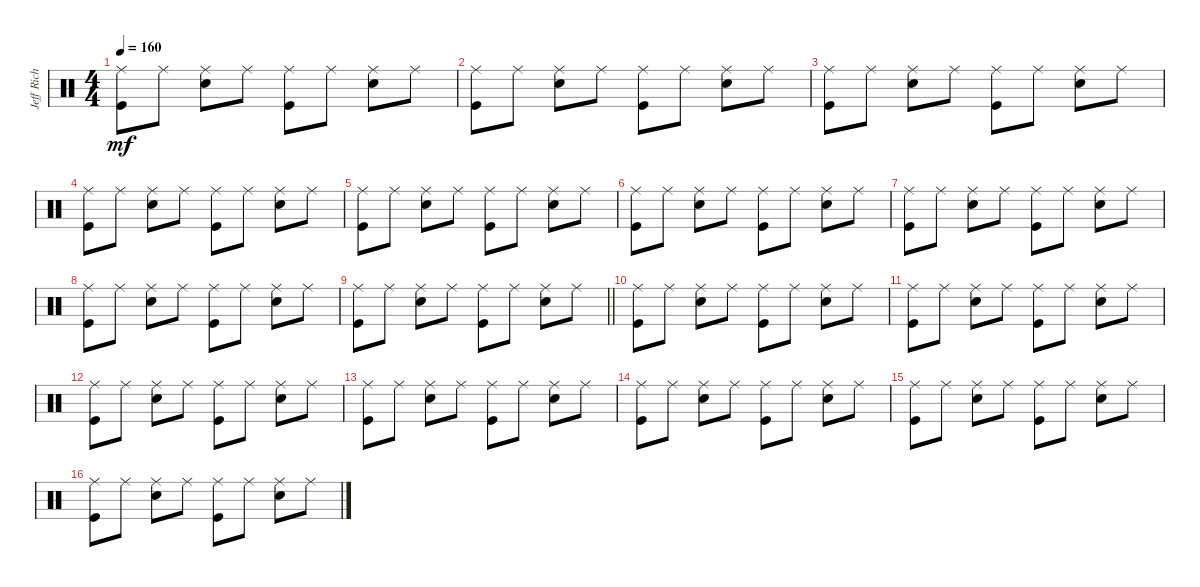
\track ("Jeff Rich (Percussion)" "Jeff Rich ") {instrument percussion}
\staff {score}
\articulation defaults
\ts (4 4)
\tempo 160
\clef neutral
\ks c
("Ride (middle)" "Kick (hit)").8{dy mf} "Ride (middle)".8 ("Ride (middle)" "Snare (hit) 2").8 "Ride (middle)".8 ("Ride (middle)" "Kick (hit)").8 "Ride (middle)".8 ("Ride (middle)" "Snare (hit) 2").8 "Ride (middle)".8 |
("Ride (middle)" "Kick (hit)").8 "Ride (middle)".8 ("Ride (middle)" "Snare (hit) 2").8 "Ride (middle)".8 ("Ride (middle)" "Kick (hit)").8 "Ride (middle)".8 ("Ride (middle)" "Snare (hit) 2").8 "Ride (middle)".8 |
("Ride (middle)" "Kick (hit)").8 "Ride (middle)".8 ("Ride (middle)" "Snare (hit) 2").8 "Ride (middle)".8 ("Ride (middle)" "Kick (hit)").8 "Ride (middle)".8 ("Ride (middle)" "Snare (hit) 2").8 "Ride (middle)".8 |
("Ride (middle)" "Kick (hit)").8 "Ride (middle)".8 ("Ride (middle)" "Snare (hit) 2").8 "Ride (middle)".8 ("Ride (middle)" "Kick (hit)").8 "Ride (middle)".8 ("Ride (middle)" "Snare (hit) 2").8 "Ride (middle)".8 |
("Ride (middle)" "Kick (hit)").8 "Ride (middle)".8 ("Ride (middle)" "Snare (hit) 2").8 "Ride (middle)".8 ("Ride (middle)" "Kick (hit)").8 "Ride (middle)".8 ("Ride (middle)" "Snare (hit) 2").8 "Ride (middle)".8 |
("Ride (middle)" "Kick (hit)").8 "Ride (middle)".8 ("Ride (middle)" "Snare (hit) 2").8 "Ride (middle)".8 ("Ride (middle)" "Kick (hit)").8 "Ride (middle)".8 ("Ride (middle)" "Snare (hit) 2").8 "Ride (middle)".8 |
("Ride (middle)" "Kick (hit)").8 "Ride (middle)".8 ("Ride (middle)" "Snare (hit) 2").8 "Ride (middle)".8 ("Ride (middle)" "Kick (hit)").8 "Ride (middle)".8 ("Ride (middle)" "Snare (hit) 2").8 "Ride (middle)".8 |
("Ride (middle)" "Kick (hit)").8 "Ride (middle)".8 ("Ride (middle)" "Snare (hit) 2").8 "Ride (middle)".8 ("Ride (middle)" "Kick (hit)").8 "Ride (middle)".8 ("Ride (middle)" "Snare (hit) 2").8 "Ride (middle)".8 |
\barLineRight lightlight
("Ride (middle)" "Kick (hit)").8 "Ride (middle)".8 ("Ride (middle)" "Snare (hit) 2").8 "Ride (middle)".8 ("Ride (middle)" "Kick (hit)").8 "Ride (middle)".8 ("Ride (middle)" "Snare (hit) 2").8 "Ride (middle)".8 |
("Ride (middle)" "Kick (hit)").8 "Ride (middle)".8 ("Ride (middle)" "Snare (hit) 2").8 "Ride (middle)".8 ("Ride (middle)" "Kick (hit)").8 "Ride (middle)".8 ("Ride (middle)" "Snare (hit) 2").8 "Ride (middle)".8 |
("Ride (middle)" "Kick (hit)").8 "Ride (middle)".8 ("Ride (middle)" "Snare (hit) 2").8 "Ride (middle)".8 ("Ride (middle)" "Kick (hit)").8 "Ride (middle)".8 ("Ride (middle)" "Snare (hit) 2").8 "Ride (middle)".8 |
("Ride (middle)" "Kick (hit)").8 "Ride (middle)".8 ("Ride (middle)" "Snare (hit) 2").8 "Ride (middle)".8 ("Ride (middle)" "Kick (hit)").8 "Ride (middle)".8 ("Ride (middle)" "Snare (hit) 2").8 "Ride (middle)".8 |
("Ride (middle)" "Kick (hit)").8 "Ride (middle)".8 ("Ride (middle)" "Snare (hit) 2").8 "Ride (middle)".8 ("Ride (middle)" "Kick (hit)").8 "Ride (middle)".8 ("Ride (middle)" "Snare (hit) 2").8 "Ride (middle)".8 |
("Ride (middle)" "Kick (hit)").8 "Ride (middle)".8 ("Ride (middle)" "Snare (hit) 2").8 "Ride (middle)".8 ("Ride (middle)" "Kick (hit)").8 "Ride (middle)".8 ("Ride (middle)" "Snare (hit) 2").8 "Ride (middle)".8 |
("Ride (middle)" "Kick (hit)").8 "Ride (middle)".8 ("Ride (middle)" "Snare (hit) 2").8 "Ride (middle)".8 ("Ride (middle)" "Kick (hit)").8 "Ride (middle)".8 ("Ride (middle)" "Snare (hit) 2").8 "Ride (middle)".8 |
("Ride (middle)" "Kick (hit)").8 "Ride (middle)".8 ("Ride (middle)" "Snare (hit) 2").8 "Ride (middle)".8 ("Ride (middle)" "Kick (hit)").8 "Ride (middle)".8 ("Ride (middle)" "Snare (hit) 2").8 "Ride (middle)".8
